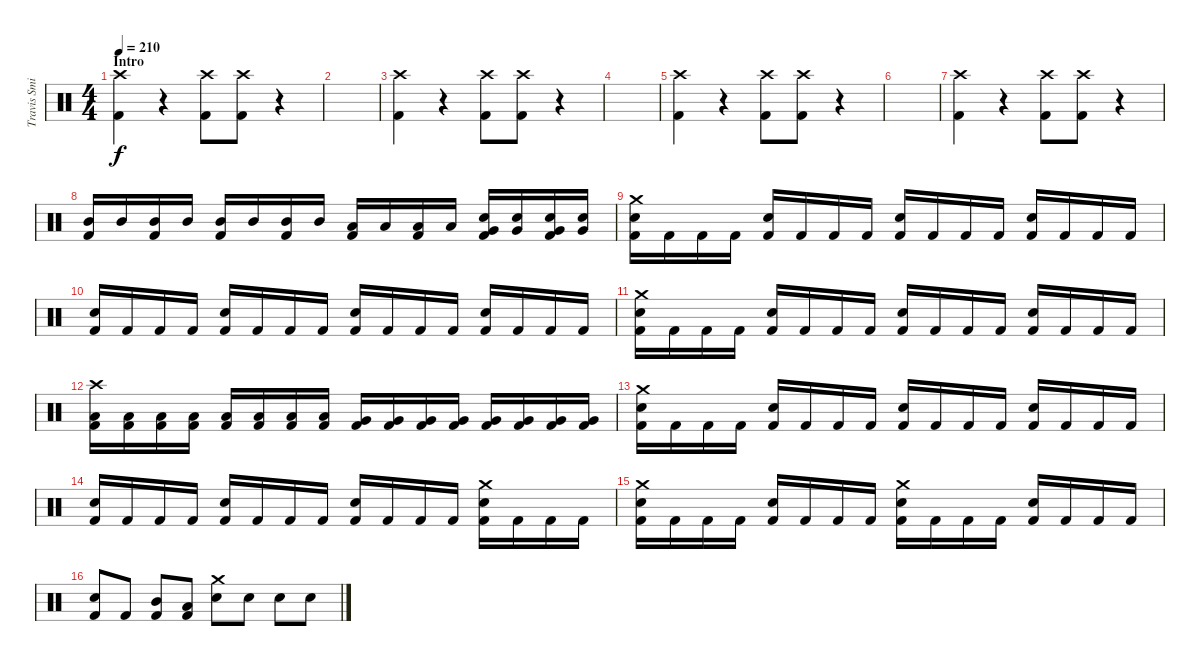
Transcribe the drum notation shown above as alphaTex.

\track ("Travis Smith" "Travis Smi") {instrument percussion}
\staff {score}
\articulation defaults
\ts (4 4)
\section ("" "Intro")
\tempo 210
\clef neutral
\ks c
("Crash high (hit)" "Kick (hit) 2").4{dy f} r.4 ("Crash high (hit)" "Kick (hit) 2").8 ("Crash high (hit)" "Kick (hit) 2").8 r.4 |
|
("Crash high (hit)" "Kick (hit) 2").4 r.4 ("Crash high (hit)" "Kick (hit) 2").8 ("Crash high (hit)" "Kick (hit) 2").8 r.4 |
|
("Crash high (hit)" "Kick (hit) 2").4 r.4 ("Crash high (hit)" "Kick (hit) 2").8 ("Crash high (hit)" "Kick (hit) 2").8 r.4 |
|
("Crash high (hit)" "Kick (hit) 2").4 r.4 ("Crash high (hit)" "Kick (hit) 2").8 ("Crash high (hit)" "Kick (hit) 2").8 r.4 |
("Kick (hit) 2" "Mid Tom (hit)").16 "Mid Tom (hit)".16 ("Kick (hit) 2" "Mid Tom (hit)").16 "Mid Tom (hit)".16 ("Kick (hit) 2" "Mid Tom (hit)").16 "Mid Tom (hit)".16 ("Kick (hit) 2" "Mid Tom (hit)").16 "Mid Tom (hit)".16 ("Kick (hit) 2" "Low Tom (hit)").16 "Low Tom (hit)".16 ("Kick (hit) 2" "Low Tom (hit)").16 "Low Tom (hit)".16 ("Snare (hit) 2" "Kick (hit) 2" "Very Low Tom (hit)").16 ("Snare (hit) 2" "Very Low Tom (hit)").16 ("Snare (hit) 2" "Kick (hit) 2" "Very Low Tom (hit)").16 ("Snare (hit) 2" "Very Low Tom (hit)").16 |
("Crash medium (hit)" "Snare (hit) 2" "Kick (hit) 2").16 "Kick (hit) 2".16 "Kick (hit) 2".16 "Kick (hit) 2".16 ("Snare (hit) 2" "Kick (hit) 2").16 "Kick (hit) 2".16 "Kick (hit) 2".16 "Kick (hit) 2".16 ("Snare (hit) 2" "Kick (hit) 2").16 "Kick (hit) 2".16 "Kick (hit) 2".16 "Kick (hit) 2".16 ("Snare (hit) 2" "Kick (hit) 2").16 "Kick (hit) 2".16 "Kick (hit) 2".16 "Kick (hit) 2".16 |
("Snare (hit) 2" "Kick (hit) 2").16 "Kick (hit) 2".16 "Kick (hit) 2".16 "Kick (hit) 2".16 ("Snare (hit) 2" "Kick (hit) 2").16 "Kick (hit) 2".16 "Kick (hit) 2".16 "Kick (hit) 2".16 ("Snare (hit) 2" "Kick (hit) 2").16 "Kick (hit) 2".16 "Kick (hit) 2".16 "Kick (hit) 2".16 ("Snare (hit) 2" "Kick (hit) 2").16 "Kick (hit) 2".16 "Kick (hit) 2".16 "Kick (hit) 2".16 |
("Crash medium (hit)" "Snare (hit) 2" "Kick (hit) 2").16 "Kick (hit) 2".16 "Kick (hit) 2".16 "Kick (hit) 2".16 ("Snare (hit) 2" "Kick (hit) 2").16 "Kick (hit) 2".16 "Kick (hit) 2".16 "Kick (hit) 2".16 ("Snare (hit) 2" "Kick (hit) 2").16 "Kick (hit) 2".16 "Kick (hit) 2".16 "Kick (hit) 2".16 ("Snare (hit) 2" "Kick (hit) 2").16 "Kick (hit) 2".16 "Kick (hit) 2".16 "Kick (hit) 2".16 |
("Crash high (hit)" "Low Tom (hit)" "Kick (hit) 2").16 ("Low Tom (hit)" "Kick (hit) 2").16 ("Low Tom (hit)" "Kick (hit) 2").16 ("Low Tom (hit)" "Kick (hit) 2").16 ("Low Tom (hit)" "Kick (hit) 2").16 ("Low Tom (hit)" "Kick (hit) 2").16 ("Low Tom (hit)" "Kick (hit) 2").16 ("Low Tom (hit)" "Kick (hit) 2").16 ("Very Low Tom (hit)" "Kick (hit) 2").16 ("Very Low Tom (hit)" "Kick (hit) 2").16 ("Very Low Tom (hit)" "Kick (hit) 2").16 ("Very Low Tom (hit)" "Kick (hit) 2").16 ("Very Low Tom (hit)" "Kick (hit) 2").16 ("Very Low Tom (hit)" "Kick (hit) 2").16 ("Very Low Tom (hit)" "Kick (hit) 2").16 ("Very Low Tom (hit)" "Kick (hit) 2").16 |
("Crash medium (hit)" "Snare (hit) 2" "Kick (hit) 2").16 "Kick (hit) 2".16 "Kick (hit) 2".16 "Kick (hit) 2".16 ("Snare (hit) 2" "Kick (hit) 2").16 "Kick (hit) 2".16 "Kick (hit) 2".16 "Kick (hit) 2".16 ("Snare (hit) 2" "Kick (hit) 2").16 "Kick (hit) 2".16 "Kick (hit) 2".16 "Kick (hit) 2".16 ("Snare (hit) 2" "Kick (hit) 2").16 "Kick (hit) 2".16 "Kick (hit) 2".16 "Kick (hit) 2".16 |
("Snare (hit) 2" "Kick (hit) 2").16 "Kick (hit) 2".16 "Kick (hit) 2".16 "Kick (hit) 2".16 ("Snare (hit) 2" "Kick (hit) 2").16 "Kick (hit) 2".16 "Kick (hit) 2".16 "Kick (hit) 2".16 ("Snare (hit) 2" "Kick (hit) 2").16 "Kick (hit) 2".16 "Kick (hit) 2".16 "Kick (hit) 2".16 ("Crash medium (hit)" "Snare (hit) 2" "Kick (hit) 2").16 "Kick (hit) 2".16 "Kick (hit) 2".16 "Kick (hit) 2".16 |
("Crash medium (hit)" "Snare (hit) 2" "Kick (hit) 2").16 "Kick (hit) 2".16 "Kick (hit) 2".16 "Kick (hit) 2".16 ("Snare (hit) 2" "Kick (hit) 2").16 "Kick (hit) 2".16 "Kick (hit) 2".16 "Kick (hit) 2".16 ("Crash medium (hit)" "Snare (hit) 2" "Kick (hit) 2").16 "Kick (hit) 2".16 "Kick (hit) 2".16 "Kick (hit) 2".16 ("Snare (hit) 2" "Kick (hit) 2").16 "Kick (hit) 2".16 "Kick (hit) 2".16 "Kick (hit) 2".16 |
("Snare (hit) 2" "Kick (hit) 2").8 "Kick (hit) 2".8 ("Mid Tom (hit)" "Kick (hit) 2").8 ("Low Tom (hit)" "Kick (hit) 2").8 ("Crash medium (hit)" "Snare (hit) 2").8 "Snare (hit) 2".8 "Snare (hit) 2".8 "Snare (hit) 2".8
